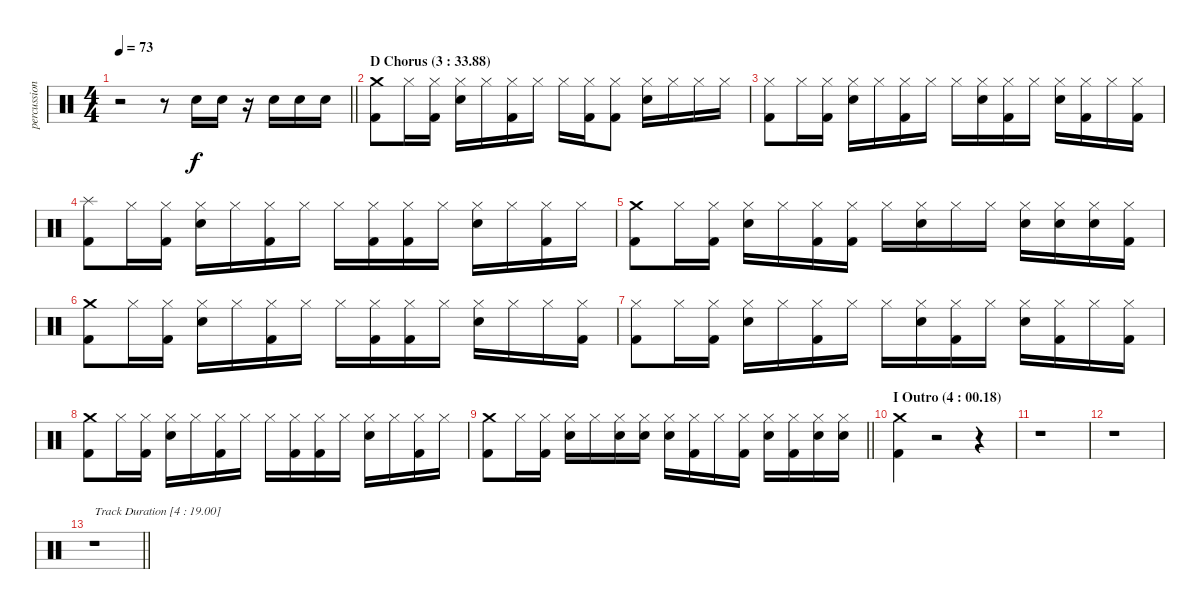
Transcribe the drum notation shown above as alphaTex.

\track ("percussion" "percussion") {instrument percussion}
\staff {score}
\articulation defaults
\ts (4 4)
\tempo 73
\clef neutral
\barLineRight lightlight
\ks c
r.2{dy f} r.8 "Snare (hit) 2".16 "Snare (hit) 2".16 r.16 "Snare (hit) 2".16 "Snare (hit) 2".16 "Snare (hit) 2".16 |
\section ("" "D Chorus (3 : 33.88)")
("Crash medium (hit)" "Kick (hit) 2").8 "Hi-Hat (closed)".16 ("Hi-Hat (closed)" "Kick (hit) 2").16 ("Snare (hit) 2" "Hi-Hat (closed)").16 "Hi-Hat (closed)".16 ("Hi-Hat (closed)" "Kick (hit) 2").16 "Hi-Hat (closed)".16 "Hi-Hat (closed)".16 ("Hi-Hat (closed)" "Kick (hit) 2").16 ("Hi-Hat (closed)" "Kick (hit) 2").8 ("Snare (hit) 2" "Hi-Hat (closed)").16 "Hi-Hat (closed)".16 "Hi-Hat (closed)".16 "Hi-Hat (closed)".16 |
("Hi-Hat (closed)" "Kick (hit) 2").8 "Hi-Hat (closed)".16 ("Hi-Hat (closed)" "Kick (hit) 2").16 ("Snare (hit) 2" "Hi-Hat (closed)").16 "Hi-Hat (closed)".16 ("Hi-Hat (closed)" "Kick (hit) 2").16 "Hi-Hat (closed)".16 "Hi-Hat (closed)".16 ("Snare (hit) 2" "Hi-Hat (closed)").16 ("Hi-Hat (closed)" "Kick (hit) 2").16 "Hi-Hat (closed)".16 ("Snare (hit) 2" "Hi-Hat (closed)").16 ("Hi-Hat (closed)" "Kick (hit) 2").16 "Hi-Hat (closed)".16 ("Hi-Hat (closed)" "Kick (hit) 2").16 |
("Splash (hit)" "Kick (hit) 2").8 "Hi-Hat (closed)".16 ("Hi-Hat (closed)" "Kick (hit) 2").16 ("Snare (hit) 2" "Hi-Hat (closed)").16 "Hi-Hat (closed)".16 ("Hi-Hat (closed)" "Kick (hit) 2").16 "Hi-Hat (closed)".16 "Hi-Hat (closed)".16 ("Hi-Hat (closed)" "Kick (hit) 2").16 ("Hi-Hat (closed)" "Kick (hit) 2").16 "Hi-Hat (closed)".16 ("Snare (hit) 2" "Hi-Hat (closed)").16 "Hi-Hat (closed)".16 ("Hi-Hat (closed)" "Kick (hit) 2").16 "Hi-Hat (closed)".16 |
("Crash medium (hit)" "Kick (hit) 2").8 "Hi-Hat (closed)".16 ("Hi-Hat (closed)" "Kick (hit) 2").16 ("Snare (hit) 2" "Hi-Hat (closed)").16 "Hi-Hat (closed)".16 ("Hi-Hat (closed)" "Kick (hit) 2").16 ("Hi-Hat (closed)" "Kick (hit) 2").16 "Hi-Hat (closed)".16 ("Snare (hit) 2" "Hi-Hat (closed)").16 "Hi-Hat (closed)".16 "Hi-Hat (closed)".16 ("Snare (hit) 2" "Hi-Hat (closed)").16 ("Snare (hit) 2" "Hi-Hat (closed)").16 ("Snare (hit) 2" "Hi-Hat (closed)").16 ("Hi-Hat (closed)" "Kick (hit) 2").16 |
("Crash medium (hit)" "Kick (hit) 2").8 "Hi-Hat (closed)".16 ("Hi-Hat (closed)" "Kick (hit) 2").16 ("Snare (hit) 2" "Hi-Hat (closed)").16 "Hi-Hat (closed)".16 ("Hi-Hat (closed)" "Kick (hit) 2").16 "Hi-Hat (closed)".16 "Hi-Hat (closed)".16 ("Hi-Hat (closed)" "Kick (hit) 2").16 ("Hi-Hat (closed)" "Kick (hit) 2").16 "Hi-Hat (closed)".16 ("Snare (hit) 2" "Hi-Hat (closed)").16 "Hi-Hat (closed)".16 "Hi-Hat (closed)".16 ("Hi-Hat (closed)" "Kick (hit) 2").16 |
("Hi-Hat (closed)" "Kick (hit) 2").8 "Hi-Hat (closed)".16 ("Hi-Hat (closed)" "Kick (hit) 2").16 ("Snare (hit) 2" "Hi-Hat (closed)").16 "Hi-Hat (closed)".16 ("Hi-Hat (closed)" "Kick (hit) 2").16 "Hi-Hat (closed)".16 "Hi-Hat (closed)".16 ("Snare (hit) 2" "Hi-Hat (closed)").16 ("Hi-Hat (closed)" "Kick (hit) 2").16 "Hi-Hat (closed)".16 ("Snare (hit) 2" "Hi-Hat (closed)").16 ("Hi-Hat (closed)" "Kick (hit) 2").16 "Hi-Hat (closed)".16 ("Hi-Hat (closed)" "Kick (hit) 2").16 |
("Crash medium (hit)" "Kick (hit) 2").8 "Hi-Hat (closed)".16 ("Hi-Hat (closed)" "Kick (hit) 2").16 ("Snare (hit) 2" "Hi-Hat (closed)").16 "Hi-Hat (closed)".16 ("Hi-Hat (closed)" "Kick (hit) 2").16 "Hi-Hat (closed)".16 "Hi-Hat (closed)".16 ("Hi-Hat (closed)" "Kick (hit) 2").16 ("Hi-Hat (closed)" "Kick (hit) 2").16 "Hi-Hat (closed)".16 ("Snare (hit) 2" "Hi-Hat (closed)").16 "Hi-Hat (closed)".16 ("Hi-Hat (closed)" "Kick (hit) 2").16 "Hi-Hat (closed)".16 |
\barLineRight lightlight
("Crash medium (hit)" "Kick (hit) 2").8 "Hi-Hat (closed)".16 ("Hi-Hat (closed)" "Kick (hit) 2").16 ("Snare (hit) 2" "Hi-Hat (closed)").16 "Hi-Hat (closed)".16 ("Snare (hit) 2" "Hi-Hat (closed)").16 ("Snare (hit) 2" "Hi-Hat (closed)").16 ("Snare (hit) 2" "Hi-Hat (closed)").16 ("Hi-Hat (closed)" "Kick (hit) 2").16 "Hi-Hat (closed)".16 ("Hi-Hat (closed)" "Kick (hit) 2").16 ("Snare (hit) 2" "Hi-Hat (closed)").16 ("Hi-Hat (closed)" "Kick (hit) 2").16 ("Snare (hit) 2" "Hi-Hat (closed)").16 ("Snare (hit) 2" "Hi-Hat (closed)").16 |
\section ("" "I Outro (4 : 00.18)")
("Crash medium (hit)" "Kick (hit) 2").4 r.2 r.4 |
r.1 |
r.1 |
\barLineRight lightlight
r.1{txt "Track Duration [4 : 19.00]"}
